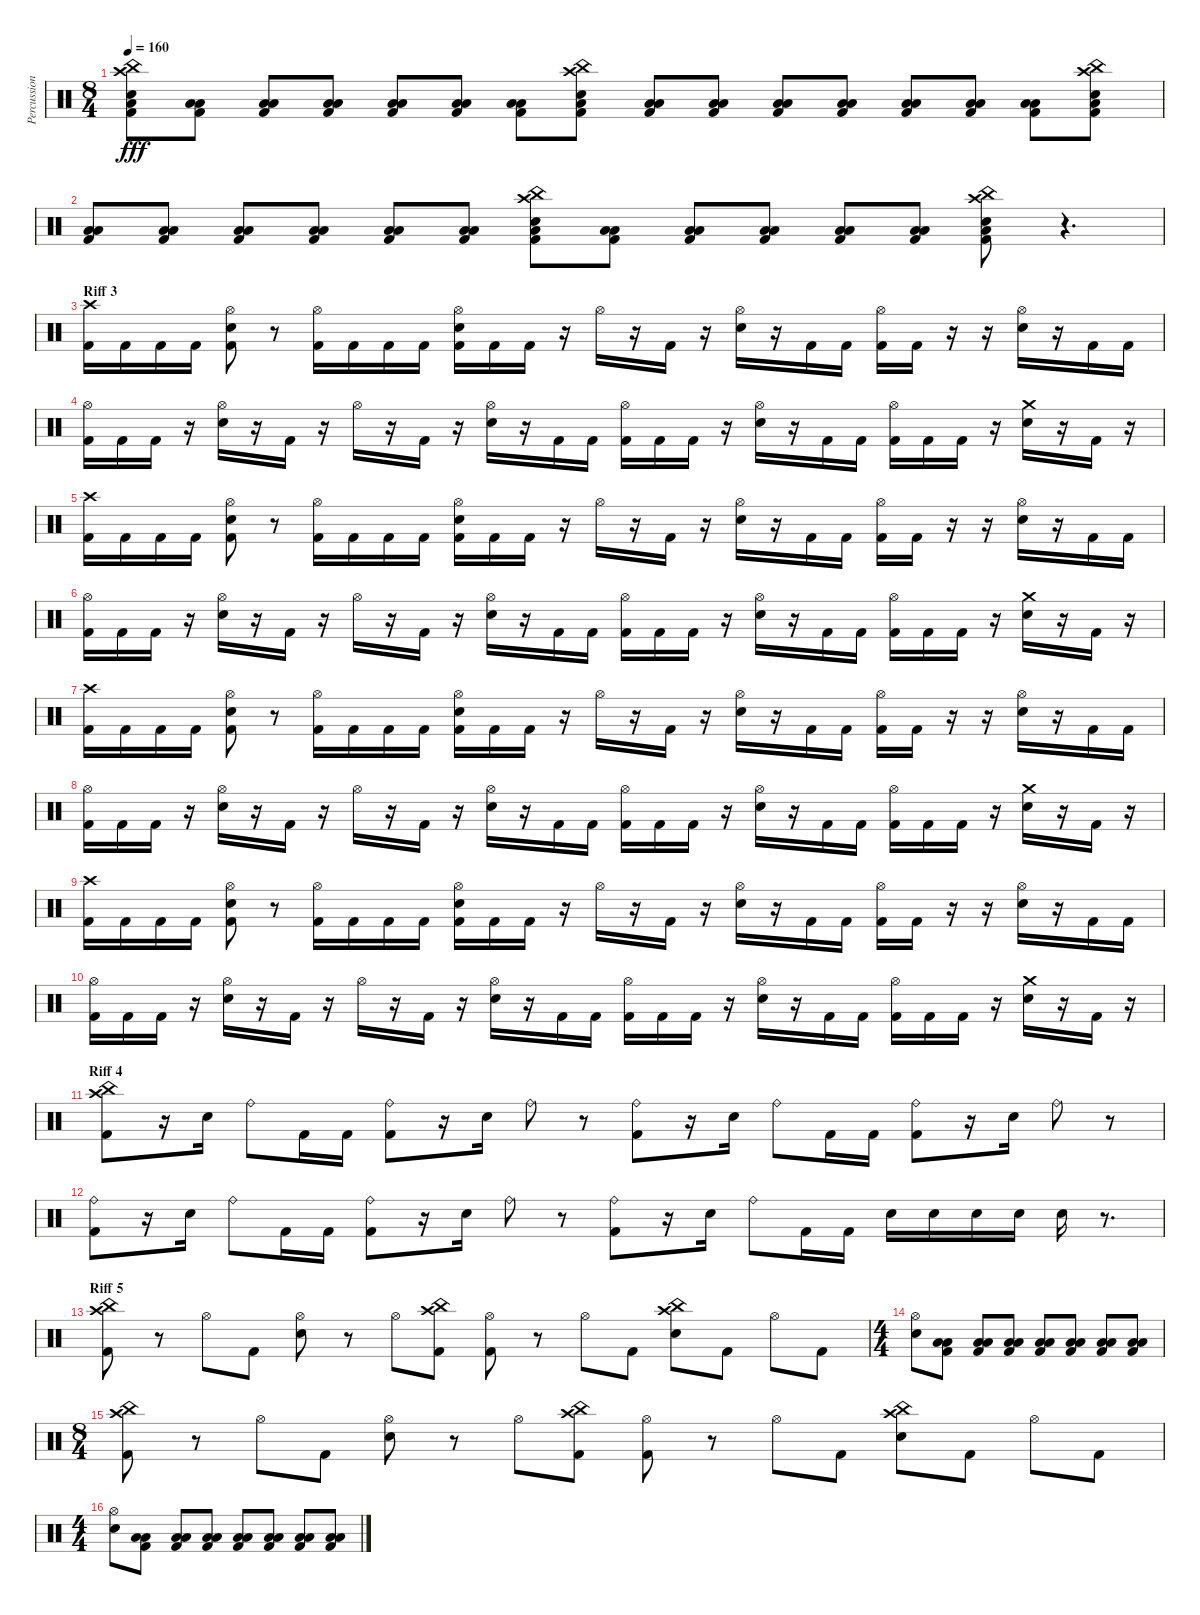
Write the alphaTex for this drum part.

\track ("Percussion" "Percussion") {instrument percussion}
\staff {score}
\articulation defaults
\ts (8 4)
\tempo 160
\clef neutral
\ks c
("China (hit)" "Crash high (hit)" "Electric Snare (hit)" "Low Floor Tom (hit)" "Kick (hit) 2").8{dy fff} ("Low Floor Tom (hit)" "Low Floor Tom (hit)" "Kick (hit) 2").8 ("Low Floor Tom (hit)" "Low Floor Tom (hit)" "Kick (hit) 2").8 ("Low Floor Tom (hit)" "Low Floor Tom (hit)" "Kick (hit) 2").8 ("Low Floor Tom (hit)" "Low Floor Tom (hit)" "Kick (hit) 2").8 ("Low Floor Tom (hit)" "Low Floor Tom (hit)" "Kick (hit) 2").8 ("Low Floor Tom (hit)" "Low Floor Tom (hit)" "Kick (hit) 2").8 ("China (hit)" "Crash high (hit)" "Electric Snare (hit)" "Low Floor Tom (hit)" "Kick (hit) 2").8 ("Low Floor Tom (hit)" "Low Floor Tom (hit)" "Kick (hit) 2").8 ("Low Floor Tom (hit)" "Low Floor Tom (hit)" "Kick (hit) 2").8 ("Low Floor Tom (hit)" "Low Floor Tom (hit)" "Kick (hit) 2").8 ("Low Floor Tom (hit)" "Low Floor Tom (hit)" "Kick (hit) 2").8 ("Low Floor Tom (hit)" "Low Floor Tom (hit)" "Kick (hit) 2").8 ("Low Floor Tom (hit)" "Low Floor Tom (hit)" "Kick (hit) 2").8 ("Low Floor Tom (hit)" "Low Floor Tom (hit)" "Kick (hit) 2").8 ("China (hit)" "Crash high (hit)" "Electric Snare (hit)" "Low Floor Tom (hit)" "Kick (hit) 2").8 |
("Low Floor Tom (hit)" "Low Floor Tom (hit)" "Kick (hit) 2").8 ("Low Floor Tom (hit)" "Low Floor Tom (hit)" "Kick (hit) 2").8 ("Low Floor Tom (hit)" "Low Floor Tom (hit)" "Kick (hit) 2").8 ("Low Floor Tom (hit)" "Low Floor Tom (hit)" "Kick (hit) 2").8 ("Low Floor Tom (hit)" "Low Floor Tom (hit)" "Kick (hit) 2").8 ("Low Floor Tom (hit)" "Low Floor Tom (hit)" "Kick (hit) 2").8 ("China (hit)" "Crash high (hit)" "Electric Snare (hit)" "Low Floor Tom (hit)" "Kick (hit) 2").8 ("Low Floor Tom (hit)" "Low Floor Tom (hit)" "Kick (hit) 2").8 ("Low Floor Tom (hit)" "Low Floor Tom (hit)" "Kick (hit) 2").8 ("Low Floor Tom (hit)" "Low Floor Tom (hit)" "Kick (hit) 2").8 ("Low Floor Tom (hit)" "Low Floor Tom (hit)" "Kick (hit) 2").8 ("Low Floor Tom (hit)" "Low Floor Tom (hit)" "Kick (hit) 2").8 ("China (hit)" "Crash high (hit)" "Electric Snare (hit)" "Low Floor Tom (hit)" "Kick (hit) 2").8 r.4{d} |
\section ("" "Riff 3")
("Crash high (hit)" "Kick (hit) 2").16 "Kick (hit) 2".16 "Kick (hit) 2".16 "Kick (hit) 2".16 ("Hi-Hat (open)" "Electric Snare (hit)" "Kick (hit) 2").8 r.8 ("Hi-Hat (open)" "Kick (hit) 2").16 "Kick (hit) 2".16 "Kick (hit) 2".16 "Kick (hit) 2".16 ("Hi-Hat (open)" "Electric Snare (hit)" "Kick (hit) 2").16 "Kick (hit) 2".16 "Kick (hit) 2".16 r.16 "Hi-Hat (open)".16 r.16 "Kick (hit) 2".16 r.16 ("Hi-Hat (open)" "Electric Snare (hit)").16 r.16 "Kick (hit) 2".16 "Kick (hit) 2".16 ("Hi-Hat (open)" "Kick (hit) 2").16 "Kick (hit) 2".16 r.16 r.16 ("Hi-Hat (open)" "Electric Snare (hit)").16 r.16 "Kick (hit) 2".16 "Kick (hit) 2".16 |
("Hi-Hat (open)" "Kick (hit) 2").16 "Kick (hit) 2".16 "Kick (hit) 2".16 r.16 ("Hi-Hat (open)" "Electric Snare (hit)").16 r.16 "Kick (hit) 2".16 r.16 "Hi-Hat (open)".16 r.16 "Kick (hit) 2".16 r.16 ("Hi-Hat (open)" "Electric Snare (hit)").16 r.16 "Kick (hit) 2".16 "Kick (hit) 2".16 ("Hi-Hat (open)" "Kick (hit) 2").16 "Kick (hit) 2".16 "Kick (hit) 2".16 r.16 ("Hi-Hat (open)" "Electric Snare (hit)").16 r.16 "Kick (hit) 2".16 "Kick (hit) 2".16 ("Hi-Hat (open)" "Kick (hit) 2").16 "Kick (hit) 2".16 "Kick (hit) 2".16 r.16 ("Crash medium (hit)" "Electric Snare (hit)").16 r.16 "Kick (hit) 2".16 r.16 |
("Crash high (hit)" "Kick (hit) 2").16 "Kick (hit) 2".16 "Kick (hit) 2".16 "Kick (hit) 2".16 ("Hi-Hat (open)" "Electric Snare (hit)" "Kick (hit) 2").8 r.8 ("Hi-Hat (open)" "Kick (hit) 2").16 "Kick (hit) 2".16 "Kick (hit) 2".16 "Kick (hit) 2".16 ("Hi-Hat (open)" "Electric Snare (hit)" "Kick (hit) 2").16 "Kick (hit) 2".16 "Kick (hit) 2".16 r.16 "Hi-Hat (open)".16 r.16 "Kick (hit) 2".16 r.16 ("Hi-Hat (open)" "Electric Snare (hit)").16 r.16 "Kick (hit) 2".16 "Kick (hit) 2".16 ("Hi-Hat (open)" "Kick (hit) 2").16 "Kick (hit) 2".16 r.16 r.16 ("Hi-Hat (open)" "Electric Snare (hit)").16 r.16 "Kick (hit) 2".16 "Kick (hit) 2".16 |
("Hi-Hat (open)" "Kick (hit) 2").16 "Kick (hit) 2".16 "Kick (hit) 2".16 r.16 ("Hi-Hat (open)" "Electric Snare (hit)").16 r.16 "Kick (hit) 2".16 r.16 "Hi-Hat (open)".16 r.16 "Kick (hit) 2".16 r.16 ("Hi-Hat (open)" "Electric Snare (hit)").16 r.16 "Kick (hit) 2".16 "Kick (hit) 2".16 ("Hi-Hat (open)" "Kick (hit) 2").16 "Kick (hit) 2".16 "Kick (hit) 2".16 r.16 ("Hi-Hat (open)" "Electric Snare (hit)").16 r.16 "Kick (hit) 2".16 "Kick (hit) 2".16 ("Hi-Hat (open)" "Kick (hit) 2").16 "Kick (hit) 2".16 "Kick (hit) 2".16 r.16 ("Crash medium (hit)" "Electric Snare (hit)").16 r.16 "Kick (hit) 2".16 r.16 |
("Crash high (hit)" "Kick (hit) 2").16 "Kick (hit) 2".16 "Kick (hit) 2".16 "Kick (hit) 2".16 ("Hi-Hat (open)" "Electric Snare (hit)" "Kick (hit) 2").8 r.8 ("Hi-Hat (open)" "Kick (hit) 2").16 "Kick (hit) 2".16 "Kick (hit) 2".16 "Kick (hit) 2".16 ("Hi-Hat (open)" "Electric Snare (hit)" "Kick (hit) 2").16 "Kick (hit) 2".16 "Kick (hit) 2".16 r.16 "Hi-Hat (open)".16 r.16 "Kick (hit) 2".16 r.16 ("Hi-Hat (open)" "Electric Snare (hit)").16 r.16 "Kick (hit) 2".16 "Kick (hit) 2".16 ("Hi-Hat (open)" "Kick (hit) 2").16 "Kick (hit) 2".16 r.16 r.16 ("Hi-Hat (open)" "Electric Snare (hit)").16 r.16 "Kick (hit) 2".16 "Kick (hit) 2".16 |
("Hi-Hat (open)" "Kick (hit) 2").16 "Kick (hit) 2".16 "Kick (hit) 2".16 r.16 ("Hi-Hat (open)" "Electric Snare (hit)").16 r.16 "Kick (hit) 2".16 r.16 "Hi-Hat (open)".16 r.16 "Kick (hit) 2".16 r.16 ("Hi-Hat (open)" "Electric Snare (hit)").16 r.16 "Kick (hit) 2".16 "Kick (hit) 2".16 ("Hi-Hat (open)" "Kick (hit) 2").16 "Kick (hit) 2".16 "Kick (hit) 2".16 r.16 ("Hi-Hat (open)" "Electric Snare (hit)").16 r.16 "Kick (hit) 2".16 "Kick (hit) 2".16 ("Hi-Hat (open)" "Kick (hit) 2").16 "Kick (hit) 2".16 "Kick (hit) 2".16 r.16 ("Crash medium (hit)" "Electric Snare (hit)").16 r.16 "Kick (hit) 2".16 r.16 |
("Crash high (hit)" "Kick (hit) 2").16 "Kick (hit) 2".16 "Kick (hit) 2".16 "Kick (hit) 2".16 ("Hi-Hat (open)" "Electric Snare (hit)" "Kick (hit) 2").8 r.8 ("Hi-Hat (open)" "Kick (hit) 2").16 "Kick (hit) 2".16 "Kick (hit) 2".16 "Kick (hit) 2".16 ("Hi-Hat (open)" "Electric Snare (hit)" "Kick (hit) 2").16 "Kick (hit) 2".16 "Kick (hit) 2".16 r.16 "Hi-Hat (open)".16 r.16 "Kick (hit) 2".16 r.16 ("Hi-Hat (open)" "Electric Snare (hit)").16 r.16 "Kick (hit) 2".16 "Kick (hit) 2".16 ("Hi-Hat (open)" "Kick (hit) 2").16 "Kick (hit) 2".16 r.16 r.16 ("Hi-Hat (open)" "Electric Snare (hit)").16 r.16 "Kick (hit) 2".16 "Kick (hit) 2".16 |
("Hi-Hat (open)" "Kick (hit) 2").16 "Kick (hit) 2".16 "Kick (hit) 2".16 r.16 ("Hi-Hat (open)" "Electric Snare (hit)").16 r.16 "Kick (hit) 2".16 r.16 "Hi-Hat (open)".16 r.16 "Kick (hit) 2".16 r.16 ("Hi-Hat (open)" "Electric Snare (hit)").16 r.16 "Kick (hit) 2".16 "Kick (hit) 2".16 ("Hi-Hat (open)" "Kick (hit) 2").16 "Kick (hit) 2".16 "Kick (hit) 2".16 r.16 ("Hi-Hat (open)" "Electric Snare (hit)").16 r.16 "Kick (hit) 2".16 "Kick (hit) 2".16 ("Hi-Hat (open)" "Kick (hit) 2").16 "Kick (hit) 2".16 "Kick (hit) 2".16 r.16 ("Crash medium (hit)" "Electric Snare (hit)").16 r.16 "Kick (hit) 2".16 r.16 |
\section ("" "Riff 4")
("China (hit)" "Crash high (hit)" "Kick (hit) 2").8 r.16 "Electric Snare (hit)".16 "Ride (bell)".8 "Kick (hit) 2".16 "Kick (hit) 2".16 ("Ride (bell)" "Kick (hit) 2").8 r.16 "Electric Snare (hit)".16 "Ride (bell)".8 r.8 ("Ride (bell)" "Kick (hit) 2").8 r.16 "Electric Snare (hit)".16 "Ride (bell)".8 "Kick (hit) 2".16 "Kick (hit) 2".16 ("Ride (bell)" "Kick (hit) 2").8 r.16 "Electric Snare (hit)".16 "Ride (bell)".8 r.8 |
("Ride (bell)" "Kick (hit) 2").8 r.16 "Electric Snare (hit)".16 "Ride (bell)".8 "Kick (hit) 2".16 "Kick (hit) 2".16 ("Ride (bell)" "Kick (hit) 2").8 r.16 "Electric Snare (hit)".16 "Ride (bell)".8 r.8 ("Ride (bell)" "Kick (hit) 2").8 r.16 "Electric Snare (hit)".16 "Ride (bell)".8 "Kick (hit) 2".16 "Kick (hit) 2".16 "Electric Snare (hit)".16 "Electric Snare (hit)".16 "Electric Snare (hit)".16 "Electric Snare (hit)".16 "Electric Snare (hit)".16 r.8{d} |
\section ("" "Riff 5")
("China (hit)" "Crash high (hit)" "Kick (hit) 2").8 r.8 "Hi-Hat (open)".8 "Kick (hit) 2".8 ("Hi-Hat (open)" "Electric Snare (hit)").8 r.8 "Hi-Hat (open)".8 ("China (hit)" "Crash high (hit)" "Kick (hit) 2").8 ("Hi-Hat (open)" "Kick (hit) 2").8 r.8 "Hi-Hat (open)".8 "Kick (hit) 2".8 ("China (hit)" "Crash high (hit)" "Electric Snare (hit)").8 "Kick (hit) 2".8 "Hi-Hat (open)".8 "Kick (hit) 2".8 |
\ts (4 4)
("Hi-Hat (open)" "Electric Snare (hit)").8 ("Low Floor Tom (hit)" "Low Floor Tom (hit)" "Kick (hit) 2").8 ("Low Floor Tom (hit)" "Low Floor Tom (hit)" "Kick (hit) 2").8 ("Low Floor Tom (hit)" "Low Floor Tom (hit)" "Kick (hit) 2").8 ("Low Floor Tom (hit)" "Low Floor Tom (hit)" "Kick (hit) 2").8 ("Low Floor Tom (hit)" "Low Floor Tom (hit)" "Kick (hit) 2").8 ("Low Floor Tom (hit)" "Low Floor Tom (hit)" "Kick (hit) 2").8 ("Low Floor Tom (hit)" "Low Floor Tom (hit)" "Kick (hit) 2").8 |
\ts (8 4)
("China (hit)" "Crash high (hit)" "Kick (hit) 2").8 r.8 "Hi-Hat (open)".8 "Kick (hit) 2".8 ("Hi-Hat (open)" "Electric Snare (hit)").8 r.8 "Hi-Hat (open)".8 ("China (hit)" "Crash high (hit)" "Kick (hit) 2").8 ("Hi-Hat (open)" "Kick (hit) 2").8 r.8 "Hi-Hat (open)".8 "Kick (hit) 2".8 ("China (hit)" "Crash high (hit)" "Electric Snare (hit)").8 "Kick (hit) 2".8 "Hi-Hat (open)".8 "Kick (hit) 2".8 |
\ts (4 4)
("Hi-Hat (open)" "Electric Snare (hit)").8 ("Low Floor Tom (hit)" "Low Floor Tom (hit)" "Kick (hit) 2").8 ("Low Floor Tom (hit)" "Low Floor Tom (hit)" "Kick (hit) 2").8 ("Low Floor Tom (hit)" "Low Floor Tom (hit)" "Kick (hit) 2").8 ("Low Floor Tom (hit)" "Low Floor Tom (hit)" "Kick (hit) 2").8 ("Low Floor Tom (hit)" "Low Floor Tom (hit)" "Kick (hit) 2").8 ("Low Floor Tom (hit)" "Low Floor Tom (hit)" "Kick (hit) 2").8 ("Low Floor Tom (hit)" "Low Floor Tom (hit)" "Kick (hit) 2").8
